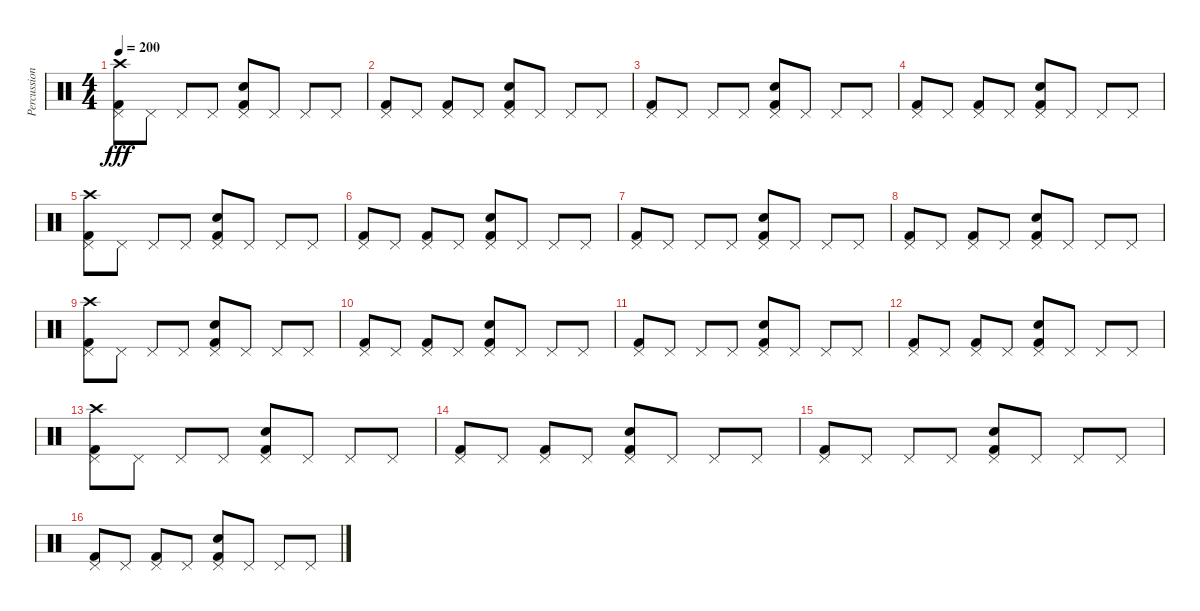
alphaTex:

\track ("Percussion" "Percussion") {instrument percussion}
\staff {score}
\articulation defaults
\ts (4 4)
\tempo 200
\clef neutral
\ks c
("Crash high (hit)" "Kick (hit) 2" "Pedal Hi-Hat (hit)").8{dy fff} "Pedal Hi-Hat (hit)".8 "Pedal Hi-Hat (hit)".8 "Pedal Hi-Hat (hit)".8 ("Electric Snare (hit)" "Kick (hit) 2" "Pedal Hi-Hat (hit)").8 "Pedal Hi-Hat (hit)".8 "Pedal Hi-Hat (hit)".8 "Pedal Hi-Hat (hit)".8 |
("Kick (hit) 2" "Pedal Hi-Hat (hit)").8 "Pedal Hi-Hat (hit)".8 ("Kick (hit) 2" "Pedal Hi-Hat (hit)").8 "Pedal Hi-Hat (hit)".8 ("Electric Snare (hit)" "Kick (hit) 2" "Pedal Hi-Hat (hit)").8 "Pedal Hi-Hat (hit)".8 "Pedal Hi-Hat (hit)".8 "Pedal Hi-Hat (hit)".8 |
("Kick (hit) 2" "Pedal Hi-Hat (hit)").8 "Pedal Hi-Hat (hit)".8 "Pedal Hi-Hat (hit)".8 "Pedal Hi-Hat (hit)".8 ("Electric Snare (hit)" "Kick (hit) 2" "Pedal Hi-Hat (hit)").8 "Pedal Hi-Hat (hit)".8 "Pedal Hi-Hat (hit)".8 "Pedal Hi-Hat (hit)".8 |
("Kick (hit) 2" "Pedal Hi-Hat (hit)").8 "Pedal Hi-Hat (hit)".8 ("Kick (hit) 2" "Pedal Hi-Hat (hit)").8 "Pedal Hi-Hat (hit)".8 ("Electric Snare (hit)" "Kick (hit) 2" "Pedal Hi-Hat (hit)").8 "Pedal Hi-Hat (hit)".8 "Pedal Hi-Hat (hit)".8 "Pedal Hi-Hat (hit)".8 |
("Crash high (hit)" "Kick (hit) 2" "Pedal Hi-Hat (hit)").8 "Pedal Hi-Hat (hit)".8 "Pedal Hi-Hat (hit)".8 "Pedal Hi-Hat (hit)".8 ("Electric Snare (hit)" "Kick (hit) 2" "Pedal Hi-Hat (hit)").8 "Pedal Hi-Hat (hit)".8 "Pedal Hi-Hat (hit)".8 "Pedal Hi-Hat (hit)".8 |
("Kick (hit) 2" "Pedal Hi-Hat (hit)").8 "Pedal Hi-Hat (hit)".8 ("Kick (hit) 2" "Pedal Hi-Hat (hit)").8 "Pedal Hi-Hat (hit)".8 ("Electric Snare (hit)" "Kick (hit) 2" "Pedal Hi-Hat (hit)").8 "Pedal Hi-Hat (hit)".8 "Pedal Hi-Hat (hit)".8 "Pedal Hi-Hat (hit)".8 |
("Kick (hit) 2" "Pedal Hi-Hat (hit)").8 "Pedal Hi-Hat (hit)".8 "Pedal Hi-Hat (hit)".8 "Pedal Hi-Hat (hit)".8 ("Electric Snare (hit)" "Kick (hit) 2" "Pedal Hi-Hat (hit)").8 "Pedal Hi-Hat (hit)".8 "Pedal Hi-Hat (hit)".8 "Pedal Hi-Hat (hit)".8 |
("Kick (hit) 2" "Pedal Hi-Hat (hit)").8 "Pedal Hi-Hat (hit)".8 ("Kick (hit) 2" "Pedal Hi-Hat (hit)").8 "Pedal Hi-Hat (hit)".8 ("Electric Snare (hit)" "Kick (hit) 2" "Pedal Hi-Hat (hit)").8 "Pedal Hi-Hat (hit)".8 "Pedal Hi-Hat (hit)".8 "Pedal Hi-Hat (hit)".8 |
("Crash high (hit)" "Kick (hit) 2" "Pedal Hi-Hat (hit)").8 "Pedal Hi-Hat (hit)".8 "Pedal Hi-Hat (hit)".8 "Pedal Hi-Hat (hit)".8 ("Electric Snare (hit)" "Kick (hit) 2" "Pedal Hi-Hat (hit)").8 "Pedal Hi-Hat (hit)".8 "Pedal Hi-Hat (hit)".8 "Pedal Hi-Hat (hit)".8 |
("Kick (hit) 2" "Pedal Hi-Hat (hit)").8 "Pedal Hi-Hat (hit)".8 ("Kick (hit) 2" "Pedal Hi-Hat (hit)").8 "Pedal Hi-Hat (hit)".8 ("Electric Snare (hit)" "Kick (hit) 2" "Pedal Hi-Hat (hit)").8 "Pedal Hi-Hat (hit)".8 "Pedal Hi-Hat (hit)".8 "Pedal Hi-Hat (hit)".8 |
("Kick (hit) 2" "Pedal Hi-Hat (hit)").8 "Pedal Hi-Hat (hit)".8 "Pedal Hi-Hat (hit)".8 "Pedal Hi-Hat (hit)".8 ("Electric Snare (hit)" "Kick (hit) 2" "Pedal Hi-Hat (hit)").8 "Pedal Hi-Hat (hit)".8 "Pedal Hi-Hat (hit)".8 "Pedal Hi-Hat (hit)".8 |
("Kick (hit) 2" "Pedal Hi-Hat (hit)").8 "Pedal Hi-Hat (hit)".8 ("Kick (hit) 2" "Pedal Hi-Hat (hit)").8 "Pedal Hi-Hat (hit)".8 ("Electric Snare (hit)" "Kick (hit) 2" "Pedal Hi-Hat (hit)").8 "Pedal Hi-Hat (hit)".8 "Pedal Hi-Hat (hit)".8 "Pedal Hi-Hat (hit)".8 |
("Crash high (hit)" "Kick (hit) 2" "Pedal Hi-Hat (hit)").8 "Pedal Hi-Hat (hit)".8 "Pedal Hi-Hat (hit)".8 "Pedal Hi-Hat (hit)".8 ("Electric Snare (hit)" "Kick (hit) 2" "Pedal Hi-Hat (hit)").8 "Pedal Hi-Hat (hit)".8 "Pedal Hi-Hat (hit)".8 "Pedal Hi-Hat (hit)".8 |
("Kick (hit) 2" "Pedal Hi-Hat (hit)").8 "Pedal Hi-Hat (hit)".8 ("Kick (hit) 2" "Pedal Hi-Hat (hit)").8 "Pedal Hi-Hat (hit)".8 ("Electric Snare (hit)" "Kick (hit) 2" "Pedal Hi-Hat (hit)").8 "Pedal Hi-Hat (hit)".8 "Pedal Hi-Hat (hit)".8 "Pedal Hi-Hat (hit)".8 |
("Kick (hit) 2" "Pedal Hi-Hat (hit)").8 "Pedal Hi-Hat (hit)".8 "Pedal Hi-Hat (hit)".8 "Pedal Hi-Hat (hit)".8 ("Electric Snare (hit)" "Kick (hit) 2" "Pedal Hi-Hat (hit)").8 "Pedal Hi-Hat (hit)".8 "Pedal Hi-Hat (hit)".8 "Pedal Hi-Hat (hit)".8 |
("Kick (hit) 2" "Pedal Hi-Hat (hit)").8 "Pedal Hi-Hat (hit)".8 ("Kick (hit) 2" "Pedal Hi-Hat (hit)").8 "Pedal Hi-Hat (hit)".8 ("Electric Snare (hit)" "Kick (hit) 2" "Pedal Hi-Hat (hit)").8 "Pedal Hi-Hat (hit)".8 "Pedal Hi-Hat (hit)".8 "Pedal Hi-Hat (hit)".8
